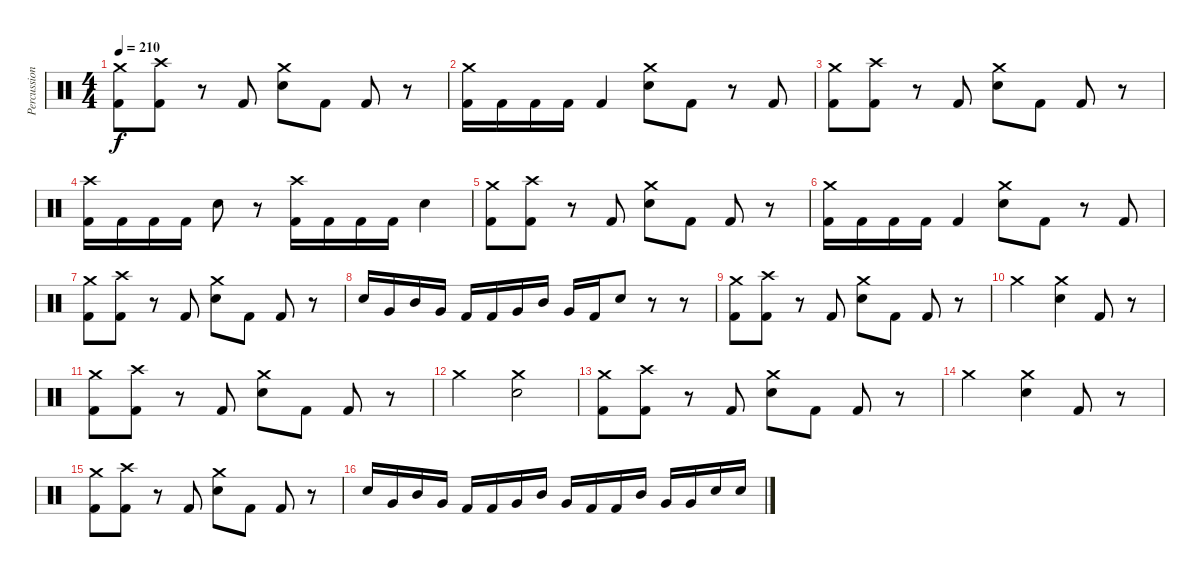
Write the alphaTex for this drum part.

\track ("Percussions" "Percussion") {instrument percussion}
\staff {score}
\articulation defaults
\ts (4 4)
\tempo 210
\clef neutral
\ks c
("Kick (hit) 2" "Crash medium (hit)").8{dy f} ("Kick (hit) 2" "Crash high (hit)").8 r.8 "Kick (hit) 2".8 ("Electric Snare (hit)" "Crash medium (hit)").8 "Kick (hit) 2".8 "Kick (hit) 2".8 r.8 |
("Kick (hit) 2" "Crash medium (hit)").16 "Kick (hit) 2".16 "Kick (hit) 2".16 "Kick (hit) 2".16 "Kick (hit) 2".4 ("Electric Snare (hit)" "Crash medium (hit)").8 "Kick (hit) 2".8 r.8 "Kick (hit) 2".8 |
("Kick (hit) 2" "Crash medium (hit)").8 ("Kick (hit) 2" "Crash high (hit)").8 r.8 "Kick (hit) 2".8 ("Electric Snare (hit)" "Crash medium (hit)").8 "Kick (hit) 2".8 "Kick (hit) 2".8 r.8 |
("Kick (hit) 2" "Crash high (hit)").16 "Kick (hit) 2".16 "Kick (hit) 2".16 "Kick (hit) 2".16 "Electric Snare (hit)".8 r.8 ("Kick (hit) 2" "Crash high (hit)").16 "Kick (hit) 2".16 "Kick (hit) 2".16 "Kick (hit) 2".16 "Electric Snare (hit)".4 |
("Kick (hit) 2" "Crash medium (hit)").8 ("Kick (hit) 2" "Crash high (hit)").8 r.8 "Kick (hit) 2".8 ("Electric Snare (hit)" "Crash medium (hit)").8 "Kick (hit) 2".8 "Kick (hit) 2".8 r.8 |
("Kick (hit) 2" "Crash medium (hit)").16 "Kick (hit) 2".16 "Kick (hit) 2".16 "Kick (hit) 2".16 "Kick (hit) 2".4 ("Electric Snare (hit)" "Crash medium (hit)").8 "Kick (hit) 2".8 r.8 "Kick (hit) 2".8 |
("Kick (hit) 2" "Crash medium (hit)").8 ("Kick (hit) 2" "Crash high (hit)").8 r.8 "Kick (hit) 2".8 ("Electric Snare (hit)" "Crash medium (hit)").8 "Kick (hit) 2".8 "Kick (hit) 2".8 r.8 |
"Electric Snare (hit)".16 "Very Low Tom (hit)".16 "Mid Tom (hit)".16 "Very Low Tom (hit)".16 "Kick (hit) 2".16 "Kick (hit) 2".16 "Very Low Tom (hit)".16 "Mid Tom (hit)".16 "Very Low Tom (hit)".16 "Kick (hit) 2".16 "Electric Snare (hit)".8 r.8 r.8 |
("Kick (hit) 2" "Crash medium (hit)").8 ("Kick (hit) 2" "Crash high (hit)").8 r.8 "Kick (hit) 2".8 ("Electric Snare (hit)" "Crash medium (hit)").8 "Kick (hit) 2".8 "Kick (hit) 2".8 r.8 |
"Crash medium (hit)".2 ("Electric Snare (hit)" "Crash medium (hit)").4 "Kick (hit) 2".8 r.8 |
("Kick (hit) 2" "Crash medium (hit)").8 ("Kick (hit) 2" "Crash high (hit)").8 r.8 "Kick (hit) 2".8 ("Electric Snare (hit)" "Crash medium (hit)").8 "Kick (hit) 2".8 "Kick (hit) 2".8 r.8 |
"Crash medium (hit)".2 ("Electric Snare (hit)" "Crash medium (hit)").2 |
("Kick (hit) 2" "Crash medium (hit)").8 ("Kick (hit) 2" "Crash high (hit)").8 r.8 "Kick (hit) 2".8 ("Electric Snare (hit)" "Crash medium (hit)").8 "Kick (hit) 2".8 "Kick (hit) 2".8 r.8 |
"Crash medium (hit)".2 ("Electric Snare (hit)" "Crash medium (hit)").4 "Kick (hit) 2".8 r.8 |
("Kick (hit) 2" "Crash medium (hit)").8 ("Kick (hit) 2" "Crash high (hit)").8 r.8 "Kick (hit) 2".8 ("Electric Snare (hit)" "Crash medium (hit)").8 "Kick (hit) 2".8 "Kick (hit) 2".8 r.8 |
"Electric Snare (hit)".16 "Very Low Tom (hit)".16 "Mid Tom (hit)".16 "Very Low Tom (hit)".16 "Kick (hit) 2".16 "Kick (hit) 2".16 "Very Low Tom (hit)".16 "Mid Tom (hit)".16 "Very Low Tom (hit)".16 "Kick (hit) 2".16 "Kick (hit) 2".16 "Mid Tom (hit)".16 "Very Low Tom (hit)".16 "Very Low Tom (hit)".16 "Electric Snare (hit)".16 "Electric Snare (hit)".16
